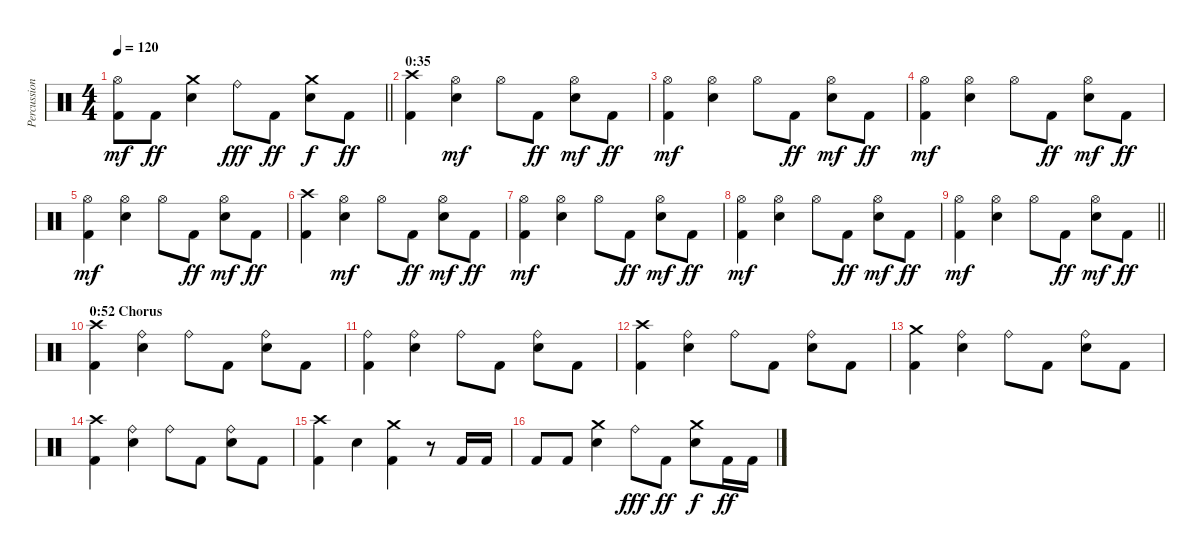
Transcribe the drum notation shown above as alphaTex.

\track ("Percussion" "Percussion") {instrument percussion}
\staff {score}
\articulation defaults
\ts (4 4)
\tempo 120
\clef neutral
\barLineRight lightlight
\ks c
("Kick (hit) 2" "Hi-Hat (open)").8{dy mf} "Kick (hit) 2".8{dy ff} ("Electric Snare (hit)" "Crash medium (hit)").4 "Ride (bell)".8{dy fff} "Kick (hit) 2".8{dy ff} ("Electric Snare (hit)" "Crash medium (hit)").8{dy f} "Kick (hit) 2".8{dy ff} |
\section ("" "0:35")
("Kick (hit) 2" "Crash high (hit)").4 ("Electric Snare (hit)" "Hi-Hat (open)").4{dy mf} "Hi-Hat (open)".8 "Kick (hit) 2".8{dy ff} ("Electric Snare (hit)" "Hi-Hat (open)").8{dy mf} "Kick (hit) 2".8{dy ff} |
("Kick (hit) 2" "Hi-Hat (open)").4{dy mf} ("Electric Snare (hit)" "Hi-Hat (open)").4 "Hi-Hat (open)".8 "Kick (hit) 2".8{dy ff} ("Electric Snare (hit)" "Hi-Hat (open)").8{dy mf} "Kick (hit) 2".8{dy ff} |
("Kick (hit) 2" "Hi-Hat (open)").4{dy mf} ("Electric Snare (hit)" "Hi-Hat (open)").4 "Hi-Hat (open)".8 "Kick (hit) 2".8{dy ff} ("Electric Snare (hit)" "Hi-Hat (open)").8{dy mf} "Kick (hit) 2".8{dy ff} |
("Kick (hit) 2" "Hi-Hat (open)").4{dy mf} ("Electric Snare (hit)" "Hi-Hat (open)").4 "Hi-Hat (open)".8 "Kick (hit) 2".8{dy ff} ("Electric Snare (hit)" "Hi-Hat (open)").8{dy mf} "Kick (hit) 2".8{dy ff} |
("Kick (hit) 2" "Crash high (hit)").4 ("Electric Snare (hit)" "Hi-Hat (open)").4{dy mf} "Hi-Hat (open)".8 "Kick (hit) 2".8{dy ff} ("Electric Snare (hit)" "Hi-Hat (open)").8{dy mf} "Kick (hit) 2".8{dy ff} |
("Kick (hit) 2" "Hi-Hat (open)").4{dy mf} ("Electric Snare (hit)" "Hi-Hat (open)").4 "Hi-Hat (open)".8 "Kick (hit) 2".8{dy ff} ("Electric Snare (hit)" "Hi-Hat (open)").8{dy mf} "Kick (hit) 2".8{dy ff} |
("Kick (hit) 2" "Hi-Hat (open)").4{dy mf} ("Electric Snare (hit)" "Hi-Hat (open)").4 "Hi-Hat (open)".8 "Kick (hit) 2".8{dy ff} ("Electric Snare (hit)" "Hi-Hat (open)").8{dy mf} "Kick (hit) 2".8{dy ff} |
\barLineRight lightlight
("Kick (hit) 2" "Hi-Hat (open)").4{dy mf} ("Electric Snare (hit)" "Hi-Hat (open)").4 "Hi-Hat (open)".8 "Kick (hit) 2".8{dy ff} ("Electric Snare (hit)" "Hi-Hat (open)").8{dy mf} "Kick (hit) 2".8{dy ff} |
\section ("" "0:52 Chorus")
("Kick (hit) 2" "Crash high (hit)").4 ("Electric Snare (hit)" "Ride (bell)").4 "Ride (bell)".8 "Kick (hit) 2".8 ("Electric Snare (hit)" "Ride (bell)").8 "Kick (hit) 2".8 |
("Kick (hit) 2" "Ride (bell)").4 ("Electric Snare (hit)" "Ride (bell)").4 "Ride (bell)".8 "Kick (hit) 2".8 ("Electric Snare (hit)" "Ride (bell)").8 "Kick (hit) 2".8 |
("Kick (hit) 2" "Crash high (hit)").4 ("Electric Snare (hit)" "Ride (bell)").4 "Ride (bell)".8 "Kick (hit) 2".8 ("Electric Snare (hit)" "Ride (bell)").8 "Kick (hit) 2".8 |
("Kick (hit) 2" "Crash medium (hit)").4 ("Electric Snare (hit)" "Ride (bell)").4 "Ride (bell)".8 "Kick (hit) 2".8 ("Electric Snare (hit)" "Ride (bell)").8 "Kick (hit) 2".8 |
("Kick (hit) 2" "Crash high (hit)").4 ("Electric Snare (hit)" "Ride (bell)").4 "Ride (bell)".8 "Kick (hit) 2".8 ("Electric Snare (hit)" "Ride (bell)").8 "Kick (hit) 2".8 |
("Kick (hit) 2" "Crash high (hit)").4 "Electric Snare (hit)".4 ("Kick (hit) 2" "Crash medium (hit)").4 r.8 "Kick (hit) 2".16 "Kick (hit) 2".16 |
"Kick (hit) 2".8 "Kick (hit) 2".8 ("Electric Snare (hit)" "Crash medium (hit)").4 "Ride (bell)".8{dy fff} "Kick (hit) 2".8{dy ff} ("Electric Snare (hit)" "Crash medium (hit)").8{dy f} "Kick (hit) 2".16{dy ff} "Kick (hit) 2".16
